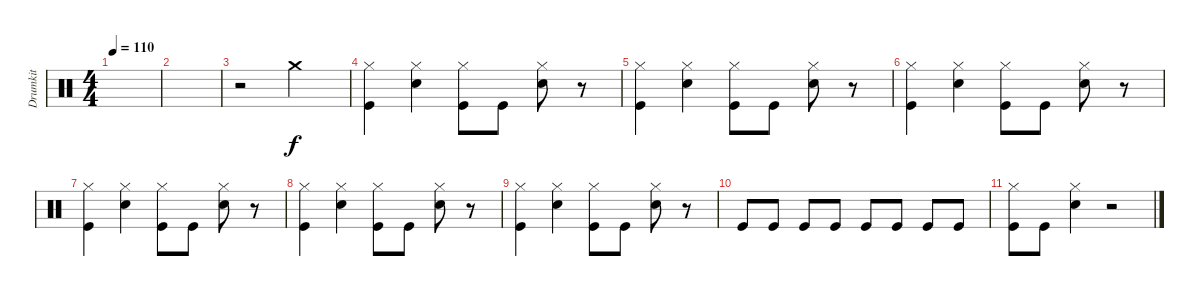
\track ("Drumkit" "Drumkit") {instrument percussion}
\staff {score}
\articulation defaults
\ts (4 4)
\tempo 110
\clef neutral
\ks c
|
|
r.2 "Crash medium (hit)".2 |
("Hi-Hat (closed)" "Kick (hit)").4 ("Snare (hit) 2" "Hi-Hat (closed)").4 ("Kick (hit)" "Hi-Hat (closed)").8 "Kick (hit)".8 ("Snare (hit) 2" "Hi-Hat (closed)").8 r.8 |
("Hi-Hat (closed)" "Kick (hit)").4 ("Snare (hit) 2" "Hi-Hat (closed)").4 ("Kick (hit)" "Hi-Hat (closed)").8 "Kick (hit)".8 ("Snare (hit) 2" "Hi-Hat (closed)").8 r.8 |
("Hi-Hat (closed)" "Kick (hit)").4 ("Snare (hit) 2" "Hi-Hat (closed)").4 ("Kick (hit)" "Hi-Hat (closed)").8 "Kick (hit)".8 ("Snare (hit) 2" "Hi-Hat (closed)").8 r.8 |
("Hi-Hat (closed)" "Kick (hit)").4 ("Snare (hit) 2" "Hi-Hat (closed)").4 ("Kick (hit)" "Hi-Hat (closed)").8 "Kick (hit)".8 ("Snare (hit) 2" "Hi-Hat (closed)").8 r.8 |
("Hi-Hat (closed)" "Kick (hit)").4 ("Snare (hit) 2" "Hi-Hat (closed)").4 ("Kick (hit)" "Hi-Hat (closed)").8 "Kick (hit)".8 ("Snare (hit) 2" "Hi-Hat (closed)").8 r.8 |
("Hi-Hat (closed)" "Kick (hit)").4 ("Snare (hit) 2" "Hi-Hat (closed)").4 ("Kick (hit)" "Hi-Hat (closed)").8 "Kick (hit)".8 ("Snare (hit) 2" "Hi-Hat (closed)").8 r.8 |
"Kick (hit)".8 "Kick (hit)".8 "Kick (hit)".8 "Kick (hit)".8 "Kick (hit)".8 "Kick (hit)".8 "Kick (hit)".8 "Kick (hit)".8 |
("Hi-Hat (closed)" "Kick (hit)").8 "Kick (hit)".8 ("Snare (hit) 2" "Hi-Hat (closed)").4 r.2
